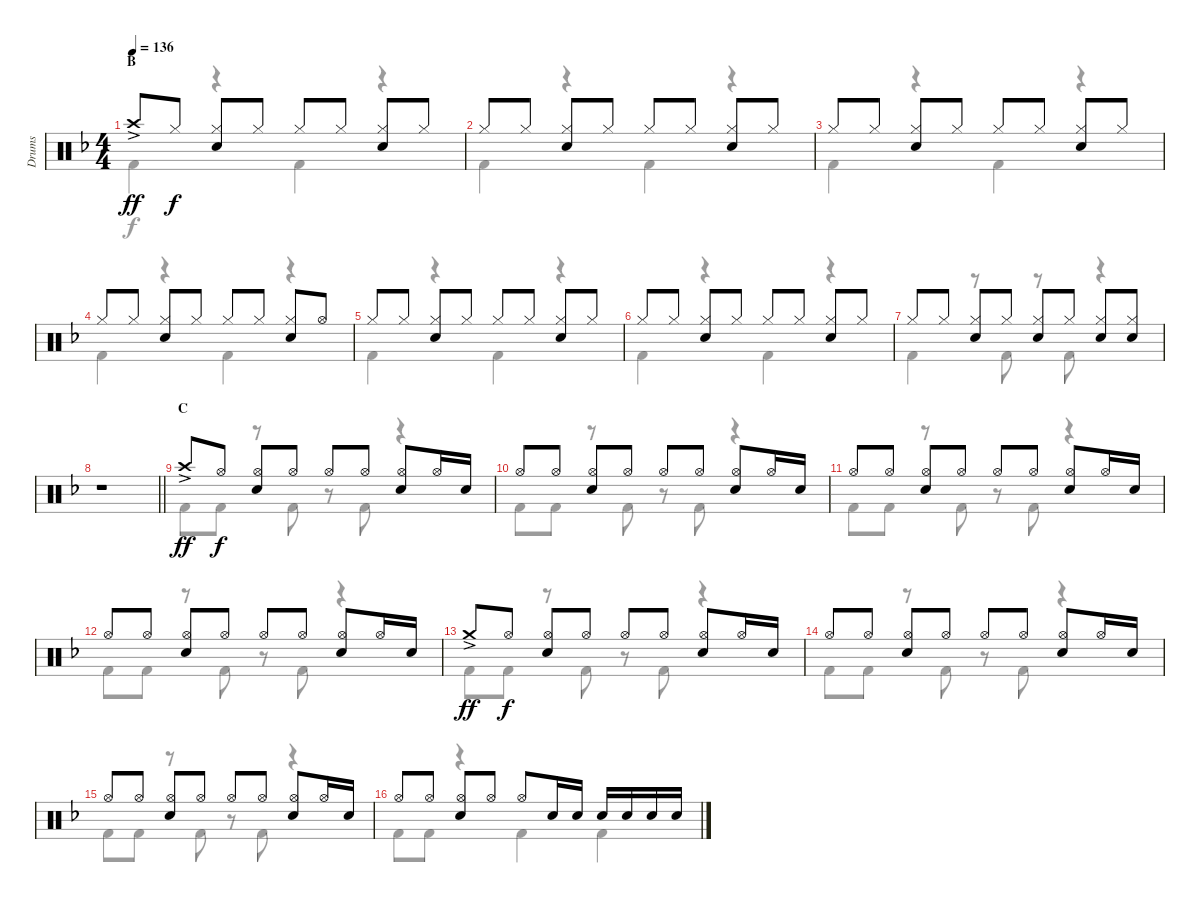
\track ("Drums" "Drums") {instrument percussion}
\staff {score}
\articulation defaults
\voice
\ts (4 4)
\section ("" "B")
\tempo 136
\clef neutral
\ks f "Crash high (hit)"{ac}.8{dy ff} "Hi-Hat (closed)".8{dy f}
("Hi-Hat (closed)" "Snare (hit) 2").8 "Hi-Hat (closed)".8 "Hi-Hat (closed)".8 "Hi-Hat (closed)".8 ("Hi-Hat (closed)" "Snare (hit) 2").8 "Hi-Hat (closed)".8 |
"Hi-Hat (closed)".8 "Hi-Hat (closed)".8 ("Hi-Hat (closed)" "Snare (hit) 2").8 "Hi-Hat (closed)".8 "Hi-Hat (closed)".8 "Hi-Hat (closed)".8 ("Hi-Hat (closed)" "Snare (hit) 2").8 "Hi-Hat (closed)".8 |
"Hi-Hat (closed)".8 "Hi-Hat (closed)".8 ("Hi-Hat (closed)" "Snare (hit) 2").8 "Hi-Hat (closed)".8 "Hi-Hat (closed)".8 "Hi-Hat (closed)".8 ("Hi-Hat (closed)" "Snare (hit) 2").8 "Hi-Hat (closed)".8 |
"Hi-Hat (closed)".8 "Hi-Hat (closed)".8 ("Hi-Hat (closed)" "Snare (hit) 2").8 "Hi-Hat (closed)".8 "Hi-Hat (closed)".8 "Hi-Hat (closed)".8 ("Hi-Hat (closed)" "Snare (hit) 2").8 "Hi-Hat (open)".8 |
"Hi-Hat (closed)".8 "Hi-Hat (closed)".8 ("Hi-Hat (closed)" "Snare (hit) 2").8 "Hi-Hat (closed)".8 "Hi-Hat (closed)".8 "Hi-Hat (closed)".8 ("Hi-Hat (closed)" "Snare (hit) 2").8 "Hi-Hat (closed)".8 |
"Hi-Hat (closed)".8 "Hi-Hat (closed)".8 ("Hi-Hat (closed)" "Snare (hit) 2").8 "Hi-Hat (closed)".8 "Hi-Hat (closed)".8 "Hi-Hat (closed)".8 ("Hi-Hat (closed)" "Snare (hit) 2").8 "Hi-Hat (closed)".8 |
"Hi-Hat (closed)".8 "Hi-Hat (closed)".8 ("Hi-Hat (closed)" "Snare (hit) 2").8 "Hi-Hat (closed)".8 ("Hi-Hat (closed)" "Snare (hit) 2").8 "Hi-Hat (closed)".8 ("Hi-Hat (closed)" "Snare (hit) 2").8 ("Hi-Hat (closed)" "Snare (hit) 2").8 |
\barLineRight lightlight
r.1 |
\section ("" "C")
"Crash high (hit)"{ac}.8{dy ff} "Hi-Hat (open)".8{dy f} ("Hi-Hat (open)" "Snare (hit) 2").8 "Hi-Hat (open)".8 "Hi-Hat (open)".8 "Hi-Hat (open)".8 ("Hi-Hat (open)" "Snare (hit) 2").8 "Hi-Hat (open)".16 "Snare (hit) 2".16 |
"Hi-Hat (open)".8 "Hi-Hat (open)".8 ("Hi-Hat (open)" "Snare (hit) 2").8 "Hi-Hat (open)".8 "Hi-Hat (open)".8 "Hi-Hat (open)".8 ("Hi-Hat (open)" "Snare (hit) 2").8 "Hi-Hat (open)".16 "Snare (hit) 2".16 |
"Hi-Hat (open)".8 "Hi-Hat (open)".8 ("Hi-Hat (open)" "Snare (hit) 2").8 "Hi-Hat (open)".8 "Hi-Hat (open)".8 "Hi-Hat (open)".8 ("Hi-Hat (open)" "Snare (hit) 2").8 "Hi-Hat (open)".16 "Snare (hit) 2".16 |
"Hi-Hat (open)".8 "Hi-Hat (open)".8 ("Hi-Hat (open)" "Snare (hit) 2").8 "Hi-Hat (open)".8 "Hi-Hat (open)".8 "Hi-Hat (open)".8 ("Hi-Hat (open)" "Snare (hit) 2").8 "Hi-Hat (open)".16 "Snare (hit) 2".16 |
"Crash medium (hit)"{ac}.8{dy ff} "Hi-Hat (open)".8{dy f} ("Hi-Hat (open)" "Snare (hit) 2").8 "Hi-Hat (open)".8 "Hi-Hat (open)".8 "Hi-Hat (open)".8 ("Hi-Hat (open)" "Snare (hit) 2").8 "Hi-Hat (open)".16 "Snare (hit) 2".16 |
"Hi-Hat (open)".8 "Hi-Hat (open)".8 ("Hi-Hat (open)" "Snare (hit) 2").8 "Hi-Hat (open)".8 "Hi-Hat (open)".8 "Hi-Hat (open)".8 ("Hi-Hat (open)" "Snare (hit) 2").8 "Hi-Hat (open)".16 "Snare (hit) 2".16 |
"Hi-Hat (open)".8 "Hi-Hat (open)".8 ("Hi-Hat (open)" "Snare (hit) 2").8 "Hi-Hat (open)".8 "Hi-Hat (open)".8 "Hi-Hat (open)".8 ("Hi-Hat (open)" "Snare (hit) 2").8 "Hi-Hat (open)".16 "Snare (hit) 2".16 |
"Hi-Hat (open)".8 "Hi-Hat (open)".8 ("Hi-Hat (open)" "Snare (hit) 2").8 "Hi-Hat (open)".8 "Hi-Hat (open)".8 "Snare (hit) 2".16 "Snare (hit) 2".16 "Snare (hit) 2".16 "Snare (hit) 2".16 "Snare (hit) 2".16 "Snare (hit) 2".16
\voice
\clef neutral
\ottava regular
\simile none
\ks f "Kick (hit) 2".4{dy f}
r.4 "Kick (hit) 2".4 r.4 |
"Kick (hit) 2".4 r.4 "Kick (hit) 2".4 r.4 |
"Kick (hit) 2".4 r.4 "Kick (hit) 2".4 r.4 |
"Kick (hit) 2".4 r.4 "Kick (hit) 2".4 r.4 |
"Kick (hit) 2".4 r.4 "Kick (hit) 2".4 r.4 |
"Kick (hit) 2".4 r.4 "Kick (hit) 2".4 r.4 |
"Kick (hit) 2".4 r.8 "Kick (hit) 2".8 r.8 "Kick (hit) 2".8 r.4 |
\barLineRight lightlight
|
"Kick (hit) 2".8 "Kick (hit) 2".8 r.8 "Kick (hit) 2".8 r.8 "Kick (hit) 2".8 r.4 |
"Kick (hit) 2".8 "Kick (hit) 2".8 r.8 "Kick (hit) 2".8 r.8 "Kick (hit) 2".8 r.4 |
"Kick (hit) 2".8 "Kick (hit) 2".8 r.8 "Kick (hit) 2".8 r.8 "Kick (hit) 2".8 r.4 |
"Kick (hit) 2".8 "Kick (hit) 2".8 r.8 "Kick (hit) 2".8 r.8 "Kick (hit) 2".8 r.4 |
"Kick (hit) 2".8 "Kick (hit) 2".8 r.8 "Kick (hit) 2".8 r.8 "Kick (hit) 2".8 r.4 |
"Kick (hit) 2".8 "Kick (hit) 2".8 r.8 "Kick (hit) 2".8 r.8 "Kick (hit) 2".8 r.4 |
"Kick (hit) 2".8 "Kick (hit) 2".8 r.8 "Kick (hit) 2".8 r.8 "Kick (hit) 2".8 r.4 |
"Kick (hit) 2".8 "Kick (hit) 2".8 r.4 "Kick (hit) 2".4 "Kick (hit) 2".4
